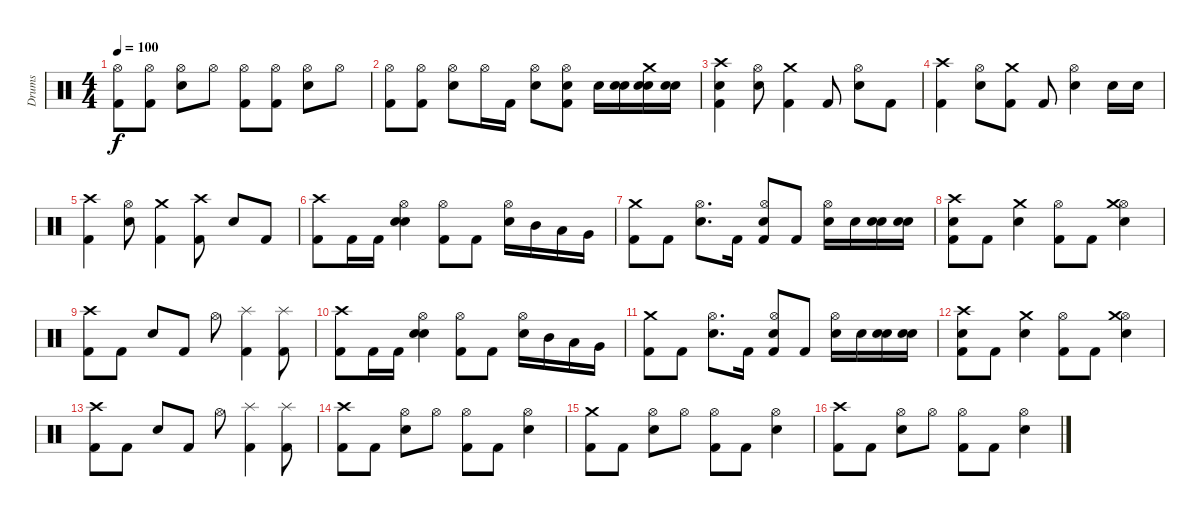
\track ("Drums" "Drums") {instrument percussion}
\staff {score}
\articulation defaults
\ts (4 4)
\tempo 100
\clef neutral
\ks c
("Kick (hit) 2" "Hi-Hat (open)").8{dy f} ("Kick (hit) 2" "Hi-Hat (open)").8 ("Hi-Hat (open)" "Snare (hit) 2").8 "Hi-Hat (open)".8 ("Kick (hit) 2" "Hi-Hat (open)").8 ("Kick (hit) 2" "Hi-Hat (open)").8 ("Hi-Hat (open)" "Snare (hit) 2").8 "Hi-Hat (open)".8 |
("Kick (hit) 2" "Hi-Hat (open)").8 ("Kick (hit) 2" "Hi-Hat (open)").8 ("Hi-Hat (open)" "Snare (hit) 2").8 "Hi-Hat (open)".16 "Kick (hit) 2".16 ("Hi-Hat (open)" "Snare (hit) 2").8 ("Kick (hit) 2" "Hi-Hat (open)" "Snare (hit) 2").8 "Snare (hit) 2".16 ("Snare (hit)" "Snare (hit) 2").16 ("Snare (hit)" "Crash medium (hit)" "Snare (hit) 2").16 ("Snare (hit)" "Snare (hit) 2").16 |
("Snare (hit)" "Kick (hit) 2" "Crash high (hit)").4 ("Hi-Hat (open)" "Snare (hit) 2").8 ("Kick (hit) 2" "Crash medium (hit)").4 "Kick (hit) 2".8 ("Hi-Hat (open)" "Snare (hit) 2").8 "Kick (hit) 2".8 |
("Kick (hit) 2" "Crash high (hit)").4 ("Hi-Hat (open)" "Snare (hit) 2").8 ("Kick (hit) 2" "Crash medium (hit)").8 "Kick (hit) 2".8 ("Hi-Hat (open)" "Snare (hit) 2").4 "Snare (hit) 2".16 "Snare (hit) 2".16 |
("Kick (hit) 2" "Crash high (hit)").4 ("Hi-Hat (open)" "Snare (hit) 2").8 ("Kick (hit) 2" "Crash medium (hit)").4 ("Kick (hit) 2" "Crash high (hit)").8 "Snare (hit) 2".8 "Kick (hit) 2".8 |
("Kick (hit) 2" "Crash high (hit)").8 "Kick (hit) 2".16 "Kick (hit) 2".16 ("Snare (hit)" "Hi-Hat (open)" "Snare (hit) 2").4 ("Kick (hit) 2" "Hi-Hat (open)").8 "Kick (hit) 2".8 ("Hi-Hat (open)" "Snare (hit) 2").16 "Mid Tom (hit)".16 "Low Tom (hit)".16 "Very Low Tom (hit)".16 |
("Kick (hit) 2" "Crash medium (hit)").8 "Kick (hit) 2".8 ("Hi-Hat (open)" "Snare (hit) 2").8{d} "Kick (hit) 2".16 ("Snare (hit)" "Kick (hit) 2" "Hi-Hat (open)").8 "Kick (hit) 2".8 ("Hi-Hat (open)" "Snare (hit) 2").16 "Snare (hit) 2".16 ("Snare (hit)" "Snare (hit) 2").16 ("Snare (hit)" "Snare (hit) 2").16 |
("Snare (hit)" "Kick (hit) 2" "Crash high (hit)").8 "Kick (hit) 2".8 ("Crash medium (hit)" "Snare (hit) 2").4 ("Kick (hit) 2" "Hi-Hat (open)").8 "Kick (hit) 2".8 ("Hi-Hat (open)" "Crash medium (hit)" "Snare (hit) 2").4 |
("Kick (hit) 2" "Crash high (hit)").8 "Kick (hit) 2".8 "Snare (hit) 2".8 "Kick (hit) 2".8 "Hi-Hat (open)".8 ("Kick (hit) 2" "Splash (hit)").4 ("Kick (hit) 2" "Splash (hit)").8 |
("Kick (hit) 2" "Crash high (hit)").8 "Kick (hit) 2".16 "Kick (hit) 2".16 ("Snare (hit)" "Hi-Hat (open)" "Snare (hit) 2").4 ("Kick (hit) 2" "Hi-Hat (open)").8 "Kick (hit) 2".8 ("Hi-Hat (open)" "Snare (hit) 2").16 "Mid Tom (hit)".16 "Low Tom (hit)".16 "Very Low Tom (hit)".16 |
("Kick (hit) 2" "Crash medium (hit)").8 "Kick (hit) 2".8 ("Hi-Hat (open)" "Snare (hit) 2").8{d} "Kick (hit) 2".16 ("Snare (hit)" "Kick (hit) 2" "Hi-Hat (open)").8 "Kick (hit) 2".8 ("Hi-Hat (open)" "Snare (hit) 2").16 "Snare (hit) 2".16 ("Snare (hit)" "Snare (hit) 2").16 ("Snare (hit)" "Snare (hit) 2").16 |
("Snare (hit)" "Kick (hit) 2" "Crash high (hit)").8 "Kick (hit) 2".8 ("Crash medium (hit)" "Snare (hit) 2").4 ("Kick (hit) 2" "Hi-Hat (open)").8 "Kick (hit) 2".8 ("Hi-Hat (open)" "Crash medium (hit)" "Snare (hit) 2").4 |
("Kick (hit) 2" "Crash high (hit)").8 "Kick (hit) 2".8 "Snare (hit) 2".8 "Kick (hit) 2".8 "Hi-Hat (open)".8 ("Kick (hit) 2" "Splash (hit)").4 ("Kick (hit) 2" "Splash (hit)").8 |
("Kick (hit) 2" "Crash high (hit)").8 "Kick (hit) 2".8 ("Hi-Hat (open)" "Snare (hit) 2").8 "Hi-Hat (open)".8 ("Kick (hit) 2" "Hi-Hat (open)").8 "Kick (hit) 2".8 ("Hi-Hat (open)" "Snare (hit) 2").4 |
("Kick (hit) 2" "Crash medium (hit)").8 "Kick (hit) 2".8 ("Hi-Hat (open)" "Snare (hit) 2").8 "Hi-Hat (open)".8 ("Kick (hit) 2" "Hi-Hat (open)").8 "Kick (hit) 2".8 ("Hi-Hat (open)" "Snare (hit) 2").4 |
("Kick (hit) 2" "Crash high (hit)").8 "Kick (hit) 2".8 ("Hi-Hat (open)" "Snare (hit) 2").8 "Hi-Hat (open)".8 ("Kick (hit) 2" "Hi-Hat (open)").8 "Kick (hit) 2".8 ("Hi-Hat (open)" "Snare (hit) 2").4
